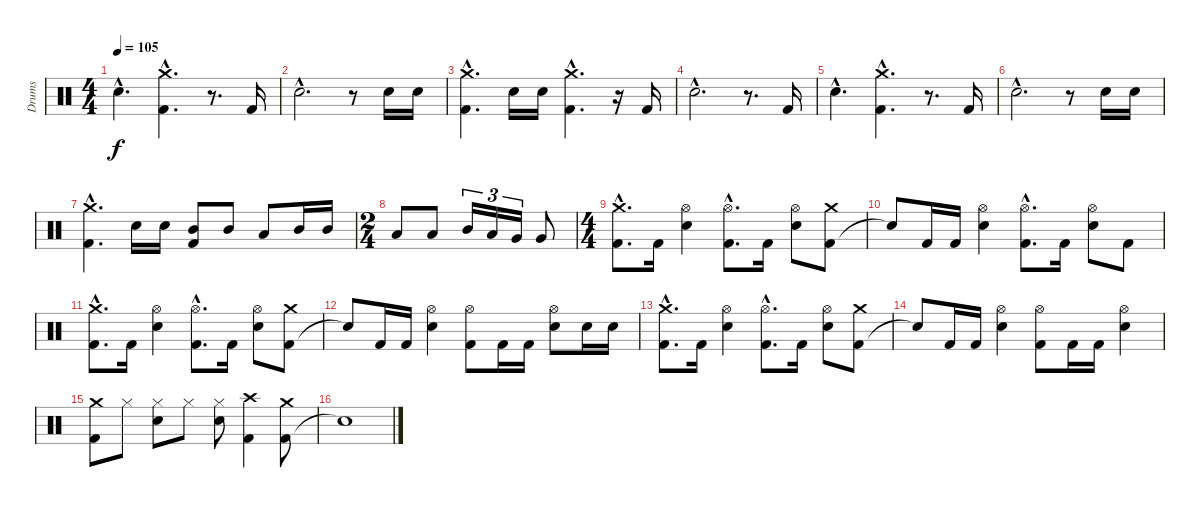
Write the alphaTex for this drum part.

\track ("Drums" "Drums") {instrument percussion}
\staff {score}
\articulation defaults
\ts (4 4)
\tempo 105
\clef neutral
\ks c "Electric Snare (hit)"{hac}.4{d dy f}
("Kick (hit) 2"{hac} "Crash medium (hit)"{hac}).4{d} r.8{d} "Kick (hit) 2".16 |
"Electric Snare (hit)"{hac}.2{d} r.8 "Electric Snare (hit)".16 "Electric Snare (hit)".16 |
("Kick (hit) 2"{hac} "Crash medium (hit)"{hac}).4{d} "Electric Snare (hit)".16 "Electric Snare (hit)".16 ("Kick (hit) 2"{hac} "Crash medium (hit)"{hac}).4{d} r.16 "Kick (hit) 2".16 |
"Electric Snare (hit)"{hac}.2{d} r.8{d} "Kick (hit) 2".16 |
"Electric Snare (hit)"{hac}.4{d} ("Kick (hit) 2"{hac} "Crash medium (hit)"{hac}).4{d} r.8{d} "Kick (hit) 2".16 |
"Electric Snare (hit)"{hac}.2{d} r.8 "Electric Snare (hit)".16 "Electric Snare (hit)".16 |
("Kick (hit) 2"{hac} "Crash medium (hit)"{hac}).4{d} "Electric Snare (hit)".16 "Electric Snare (hit)".16 ("Kick (hit) 2" "Mid Tom (hit)").8 "Mid Tom (hit)".8 "Low Tom (hit)".8 "Mid Tom (hit)".16 "Mid Tom (hit)".16 |
\ts (2 4)
"Low Tom (hit)".8 "Low Tom (hit)".8 "Mid Tom (hit)".16{tu (3 2)} "Low Tom (hit)".16{tu (3 2)} "Very Low Tom (hit)".16{tu (3 2)} "Very Low Tom (hit)".8 |
\ts (4 4)
("Kick (hit) 2"{hac} "Crash medium (hit)"{hac}).8{d} "Kick (hit) 2".16 ("Electric Snare (hit)" "Hi-Hat (open)").4 ("Kick (hit) 2"{hac} "Hi-Hat (open)"{hac}).8{d} "Kick (hit) 2".16 ("Electric Snare (hit)" "Hi-Hat (open)").8 ("Kick (hit) 2" "Crash medium (hit)").8 |
"Snare (hit)"{t}.8 "Kick (hit) 2".16 "Kick (hit) 2".16 ("Electric Snare (hit)" "Hi-Hat (open)").4 ("Kick (hit) 2"{hac} "Hi-Hat (open)"{hac}).8{d} "Kick (hit) 2".16 ("Electric Snare (hit)" "Hi-Hat (open)").8 "Kick (hit) 2".8 |
("Kick (hit) 2"{hac} "Crash medium (hit)"{hac}).8{d} "Kick (hit) 2".16 ("Electric Snare (hit)" "Hi-Hat (open)").4 ("Kick (hit) 2"{hac} "Hi-Hat (open)"{hac}).8{d} "Kick (hit) 2".16 ("Electric Snare (hit)" "Hi-Hat (open)").8 ("Kick (hit) 2" "Crash medium (hit)").8 |
"Snare (hit)"{t}.8 "Kick (hit) 2".16 "Kick (hit) 2".16 ("Electric Snare (hit)" "Hi-Hat (open)").4 ("Kick (hit) 2" "Hi-Hat (open)").8 "Kick (hit) 2".16 "Kick (hit) 2".16 ("Electric Snare (hit)" "Hi-Hat (open)").8 "Electric Snare (hit)".16 "Electric Snare (hit)".16 |
("Kick (hit) 2"{hac} "Crash medium (hit)"{hac}).8{d} "Kick (hit) 2".16 ("Electric Snare (hit)" "Hi-Hat (open)").4 ("Kick (hit) 2"{hac} "Hi-Hat (open)"{hac}).8{d} "Kick (hit) 2".16 ("Electric Snare (hit)" "Hi-Hat (open)").8 ("Kick (hit) 2" "Crash medium (hit)").8 |
"Snare (hit)"{t}.8 "Kick (hit) 2".16 "Kick (hit) 2".16 ("Electric Snare (hit)" "Hi-Hat (open)").4 ("Kick (hit) 2" "Hi-Hat (open)").8 "Kick (hit) 2".16 "Kick (hit) 2".16 ("Electric Snare (hit)" "Hi-Hat (open)").4 |
("Kick (hit) 2" "Crash medium (hit)").8 "Hi-Hat (closed)".8 ("Electric Snare (hit)" "Hi-Hat (closed)").8 "Hi-Hat (closed)".8 ("Electric Snare (hit)" "Hi-Hat (closed)").8 ("Kick (hit) 2" "Crash high (hit)").4 ("Kick (hit) 2" "Crash medium (hit)").8 |
"Snare (hit)"{t}.1
